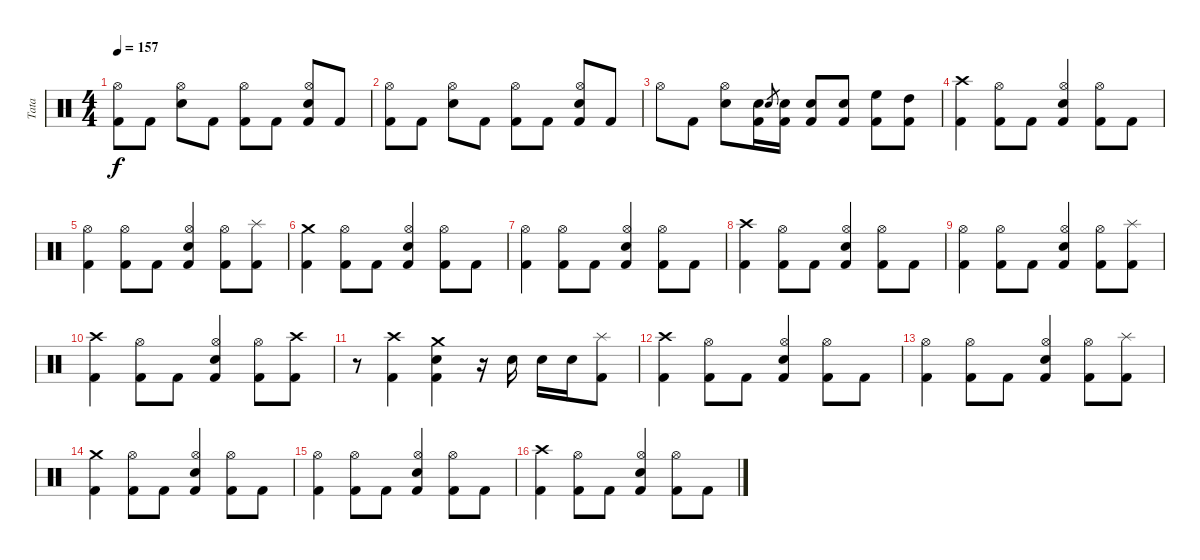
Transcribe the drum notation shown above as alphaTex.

\track ("Tata" "Tata") {instrument percussion}
\staff {score}
\articulation defaults
\ts (4 4)
\tempo 157
\clef neutral
\ks c
("Kick (hit) 2" "Hi-Hat (open)").8{dy f} "Kick (hit) 2".8 ("Electric Snare (hit)" "Hi-Hat (open)").8 "Kick (hit) 2".8 ("Kick (hit) 2" "Hi-Hat (open)").8 "Kick (hit) 2".8 ("Kick (hit) 2" "Electric Snare (hit)" "Hi-Hat (open)").8 "Kick (hit) 2".8 |
("Kick (hit) 2" "Hi-Hat (open)").8 "Kick (hit) 2".8 ("Electric Snare (hit)" "Hi-Hat (open)").8 "Kick (hit) 2".8 ("Kick (hit) 2" "Hi-Hat (open)").8 "Kick (hit) 2".8 ("Kick (hit) 2" "Electric Snare (hit)" "Hi-Hat (open)").8 "Kick (hit) 2".8 |
"Hi-Hat (open)".8 "Kick (hit) 2".8 ("Electric Snare (hit)" "Hi-Hat (open)").8 ("Kick (hit) 2" "Electric Snare (hit)").16 "Electric Snare (hit)".8{gr} ("Kick (hit) 2" "Electric Snare (hit)").16 ("Kick (hit) 2" "Electric Snare (hit)").8 ("Kick (hit) 2" "Electric Snare (hit)").8 ("Kick (hit) 2" "High Floor Tom (hit)").8 ("Kick (hit) 2" "High Tom (hit)").8 |
("Kick (hit) 2" "Crash high (hit)").4 ("Kick (hit) 2" "Hi-Hat (open)").8 "Kick (hit) 2".8 ("Kick (hit) 2" "Electric Snare (hit)" "Hi-Hat (open)").4 ("Kick (hit) 2" "Hi-Hat (open)").8 "Kick (hit) 2".8 |
("Kick (hit) 2" "Hi-Hat (open)").4 ("Kick (hit) 2" "Hi-Hat (open)").8 "Kick (hit) 2".8 ("Kick (hit) 2" "Electric Snare (hit)" "Hi-Hat (open)").4 ("Kick (hit) 2" "Hi-Hat (open)").8 ("Kick (hit) 2" "Splash (hit)").8 |
("Kick (hit) 2" "Crash medium (hit)").4 ("Kick (hit) 2" "Hi-Hat (open)").8 "Kick (hit) 2".8 ("Kick (hit) 2" "Electric Snare (hit)" "Hi-Hat (open)").4 ("Kick (hit) 2" "Hi-Hat (open)").8 "Kick (hit) 2".8 |
("Kick (hit) 2" "Hi-Hat (open)").4 ("Kick (hit) 2" "Hi-Hat (open)").8 "Kick (hit) 2".8 ("Kick (hit) 2" "Electric Snare (hit)" "Hi-Hat (open)").4 ("Kick (hit) 2" "Hi-Hat (open)").8 "Kick (hit) 2".8 |
("Kick (hit) 2" "Crash high (hit)").4 ("Kick (hit) 2" "Hi-Hat (open)").8 "Kick (hit) 2".8 ("Kick (hit) 2" "Electric Snare (hit)" "Hi-Hat (open)").4 ("Kick (hit) 2" "Hi-Hat (open)").8 "Kick (hit) 2".8 |
("Kick (hit) 2" "Hi-Hat (open)").4 ("Kick (hit) 2" "Hi-Hat (open)").8 "Kick (hit) 2".8 ("Kick (hit) 2" "Electric Snare (hit)" "Hi-Hat (open)").4 ("Kick (hit) 2" "Hi-Hat (open)").8 ("Kick (hit) 2" "Splash (hit)").8 |
("Kick (hit) 2" "Crash high (hit)").4 ("Kick (hit) 2" "Hi-Hat (open)").8 "Kick (hit) 2".8 ("Kick (hit) 2" "Electric Snare (hit)" "Hi-Hat (open)").4 ("Kick (hit) 2" "Hi-Hat (open)").8 ("Kick (hit) 2" "Crash high (hit)").8 |
r.8 ("Kick (hit) 2" "Crash high (hit)").4 ("Kick (hit) 2" "Electric Snare (hit)" "Crash medium (hit)").4 r.16 "Electric Snare (hit)".16 "Electric Snare (hit)".16 "Electric Snare (hit)".16 ("Kick (hit) 2" "Splash (hit)").8 |
("Kick (hit) 2" "Crash high (hit)").4 ("Kick (hit) 2" "Hi-Hat (open)").8 "Kick (hit) 2".8 ("Kick (hit) 2" "Electric Snare (hit)" "Hi-Hat (open)").4 ("Kick (hit) 2" "Hi-Hat (open)").8 "Kick (hit) 2".8 |
("Kick (hit) 2" "Hi-Hat (open)").4 ("Kick (hit) 2" "Hi-Hat (open)").8 "Kick (hit) 2".8 ("Kick (hit) 2" "Electric Snare (hit)" "Hi-Hat (open)").4 ("Kick (hit) 2" "Hi-Hat (open)").8 ("Kick (hit) 2" "Splash (hit)").8 |
("Kick (hit) 2" "Crash medium (hit)").4 ("Kick (hit) 2" "Hi-Hat (open)").8 "Kick (hit) 2".8 ("Kick (hit) 2" "Electric Snare (hit)" "Hi-Hat (open)").4 ("Kick (hit) 2" "Hi-Hat (open)").8 "Kick (hit) 2".8 |
("Kick (hit) 2" "Hi-Hat (open)").4 ("Kick (hit) 2" "Hi-Hat (open)").8 "Kick (hit) 2".8 ("Kick (hit) 2" "Electric Snare (hit)" "Hi-Hat (open)").4 ("Kick (hit) 2" "Hi-Hat (open)").8 "Kick (hit) 2".8 |
("Kick (hit) 2" "Crash high (hit)").4 ("Kick (hit) 2" "Hi-Hat (open)").8 "Kick (hit) 2".8 ("Kick (hit) 2" "Electric Snare (hit)" "Hi-Hat (open)").4 ("Kick (hit) 2" "Hi-Hat (open)").8 "Kick (hit) 2".8
